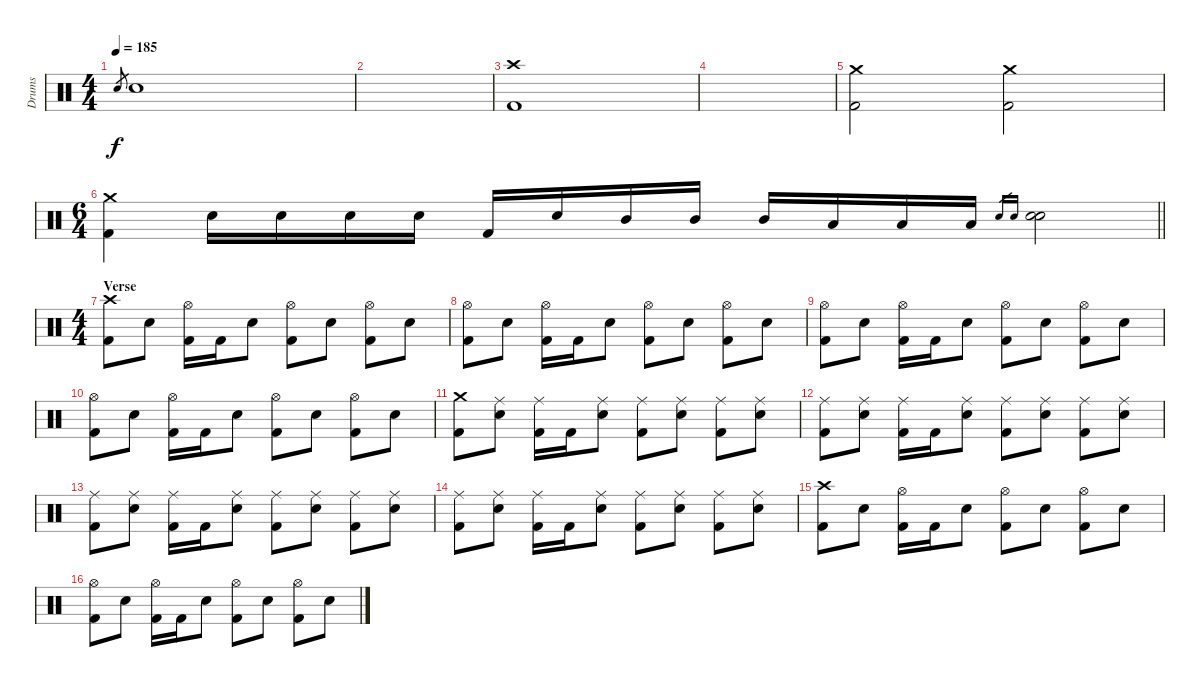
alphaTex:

\track ("Drums" "Drums") {instrument percussion}
\staff {score}
\articulation defaults
\ts (4 4)
\section ("" "")
\tempo 185
\clef neutral
\ks c "Electric Snare (hit)".8{gr dy f} "Electric Snare (hit)".1
|
|
("Crash high (hit)" "Kick (hit) 2").1 |
|
("Crash medium (hit)" "Kick (hit) 2").2 ("Crash medium (hit)" "Kick (hit) 2").2 |
\ts (6 4)
\barLineRight lightlight
("Crash medium (hit)" "Kick (hit) 2").4 "Electric Snare (hit)".16 "Electric Snare (hit)".16 "Electric Snare (hit)".16 "Electric Snare (hit)".16 "Kick (hit) 2".16 "Electric Snare (hit)".16 "Mid Tom (hit)".16 "Mid Tom (hit)".16 "Mid Tom (hit)".16 "Low Tom (hit)".16 "Low Tom (hit)".16 "Low Tom (hit)".16 "Snare (hit) 2".16{gr} "Electric Snare (hit)".16{gr} ("Snare (hit) 2" "Electric Snare (hit)").2 |
\ts (4 4)
\section ("" "Verse")
("Crash high (hit)" "Kick (hit) 2").8 "Electric Snare (hit)".8 ("Hi-Hat (open)" "Kick (hit) 2").16 "Kick (hit) 2".16 "Electric Snare (hit)".8 ("Hi-Hat (open)" "Kick (hit) 2").8 "Electric Snare (hit)".8 ("Hi-Hat (open)" "Kick (hit) 2").8 "Electric Snare (hit)".8 |
("Hi-Hat (open)" "Kick (hit) 2").8 "Electric Snare (hit)".8 ("Hi-Hat (open)" "Kick (hit) 2").16 "Kick (hit) 2".16 "Electric Snare (hit)".8 ("Hi-Hat (open)" "Kick (hit) 2").8 "Electric Snare (hit)".8 ("Hi-Hat (open)" "Kick (hit) 2").8 "Electric Snare (hit)".8 |
("Hi-Hat (open)" "Kick (hit) 2").8 "Electric Snare (hit)".8 ("Hi-Hat (open)" "Kick (hit) 2").16 "Kick (hit) 2".16 "Electric Snare (hit)".8 ("Hi-Hat (open)" "Kick (hit) 2").8 "Electric Snare (hit)".8 ("Hi-Hat (open)" "Kick (hit) 2").8 "Electric Snare (hit)".8 |
("Hi-Hat (open)" "Kick (hit) 2").8 "Electric Snare (hit)".8 ("Hi-Hat (open)" "Kick (hit) 2").16 "Kick (hit) 2".16 "Electric Snare (hit)".8 ("Hi-Hat (open)" "Kick (hit) 2").8 "Electric Snare (hit)".8 ("Hi-Hat (open)" "Kick (hit) 2").8 "Electric Snare (hit)".8 |
("Crash medium (hit)" "Kick (hit) 2").8 ("Ride (middle)" "Electric Snare (hit)").8 ("Ride (middle)" "Kick (hit) 2").16 "Kick (hit) 2".16 ("Ride (middle)" "Electric Snare (hit)").8 ("Ride (middle)" "Kick (hit) 2").8 ("Ride (middle)" "Electric Snare (hit)").8 ("Ride (middle)" "Kick (hit) 2").8 ("Ride (middle)" "Electric Snare (hit)").8 |
("Ride (middle)" "Kick (hit) 2").8 ("Ride (middle)" "Electric Snare (hit)").8 ("Ride (middle)" "Kick (hit) 2").16 "Kick (hit) 2".16 ("Ride (middle)" "Electric Snare (hit)").8 ("Ride (middle)" "Kick (hit) 2").8 ("Ride (middle)" "Electric Snare (hit)").8 ("Ride (middle)" "Kick (hit) 2").8 ("Ride (middle)" "Electric Snare (hit)").8 |
("Ride (middle)" "Kick (hit) 2").8 ("Ride (middle)" "Electric Snare (hit)").8 ("Ride (middle)" "Kick (hit) 2").16 "Kick (hit) 2".16 ("Ride (middle)" "Electric Snare (hit)").8 ("Ride (middle)" "Kick (hit) 2").8 ("Ride (middle)" "Electric Snare (hit)").8 ("Ride (middle)" "Kick (hit) 2").8 ("Ride (middle)" "Electric Snare (hit)").8 |
("Ride (middle)" "Kick (hit) 2").8 ("Ride (middle)" "Electric Snare (hit)").8 ("Ride (middle)" "Kick (hit) 2").16 "Kick (hit) 2".16 ("Ride (middle)" "Electric Snare (hit)").8 ("Ride (middle)" "Kick (hit) 2").8 ("Ride (middle)" "Electric Snare (hit)").8 ("Ride (middle)" "Kick (hit) 2").8 ("Ride (middle)" "Electric Snare (hit)").8 |
("Crash high (hit)" "Kick (hit) 2").8 "Electric Snare (hit)".8 ("Hi-Hat (open)" "Kick (hit) 2").16 "Kick (hit) 2".16 "Electric Snare (hit)".8 ("Hi-Hat (open)" "Kick (hit) 2").8 "Electric Snare (hit)".8 ("Hi-Hat (open)" "Kick (hit) 2").8 "Electric Snare (hit)".8 |
("Hi-Hat (open)" "Kick (hit) 2").8 "Electric Snare (hit)".8 ("Hi-Hat (open)" "Kick (hit) 2").16 "Kick (hit) 2".16 "Electric Snare (hit)".8 ("Hi-Hat (open)" "Kick (hit) 2").8 "Electric Snare (hit)".8 ("Hi-Hat (open)" "Kick (hit) 2").8 "Electric Snare (hit)".8
